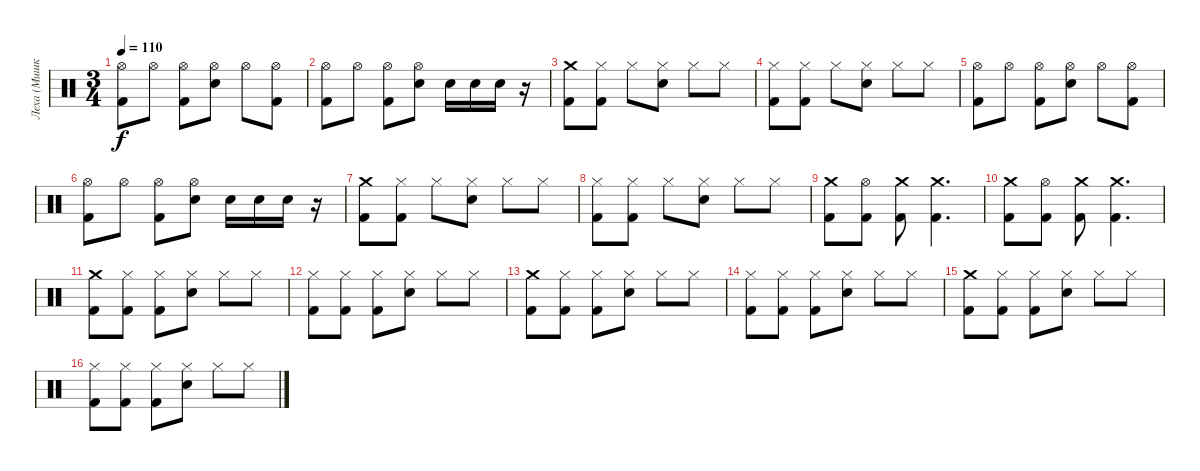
\track ("Леха (Мишка Гами)" "Леха (Мишк") {instrument percussion}
\staff {score}
\articulation defaults
\ts (3 4)
\tempo 110
\clef neutral
\ks c
("Hi-Hat (open)" "Kick (hit) 2").8{dy f} "Hi-Hat (open)".8 ("Hi-Hat (open)" "Kick (hit) 2").8 ("Hi-Hat (open)" "Snare (hit) 2").8 "Hi-Hat (open)".8 ("Hi-Hat (open)" "Kick (hit) 2").8 |
("Hi-Hat (open)" "Kick (hit) 2").8 "Hi-Hat (open)".8 ("Hi-Hat (open)" "Kick (hit) 2").8 ("Hi-Hat (open)" "Snare (hit) 2").8 "Snare (hit) 2".16 "Snare (hit) 2".16 "Snare (hit) 2".16 r.16 |
("Crash medium (hit)" "Kick (hit) 2").8 ("Hi-Hat (closed)" "Kick (hit) 2").8 "Hi-Hat (closed)".8 ("Hi-Hat (closed)" "Snare (hit) 2").8 "Hi-Hat (closed)".8 "Hi-Hat (closed)".8 |
("Hi-Hat (closed)" "Kick (hit) 2").8 ("Hi-Hat (closed)" "Kick (hit) 2").8 "Hi-Hat (closed)".8 ("Hi-Hat (closed)" "Snare (hit) 2").8 "Hi-Hat (closed)".8 "Hi-Hat (closed)".8 |
("Hi-Hat (open)" "Kick (hit) 2").8 "Hi-Hat (open)".8 ("Hi-Hat (open)" "Kick (hit) 2").8 ("Hi-Hat (open)" "Snare (hit) 2").8 "Hi-Hat (open)".8 ("Hi-Hat (open)" "Kick (hit) 2").8 |
("Hi-Hat (open)" "Kick (hit) 2").8 "Hi-Hat (open)".8 ("Hi-Hat (open)" "Kick (hit) 2").8 ("Hi-Hat (open)" "Snare (hit) 2").8 "Snare (hit) 2".16 "Snare (hit) 2".16 "Snare (hit) 2".16 r.16 |
("Crash medium (hit)" "Kick (hit) 2").8 ("Hi-Hat (closed)" "Kick (hit) 2").8 "Hi-Hat (closed)".8 ("Hi-Hat (closed)" "Snare (hit) 2").8 "Hi-Hat (closed)".8 "Hi-Hat (closed)".8 |
("Hi-Hat (closed)" "Kick (hit) 2").8 ("Hi-Hat (closed)" "Kick (hit) 2").8 "Hi-Hat (closed)".8 ("Hi-Hat (closed)" "Snare (hit) 2").8 "Hi-Hat (closed)".8 "Hi-Hat (closed)".8 |
("Crash medium (hit)" "Kick (hit) 2").8 ("Hi-Hat (open)" "Kick (hit) 2").8 ("Crash medium (hit)" "Kick (hit) 2").8 ("Crash medium (hit)" "Kick (hit) 2").4{d} |
("Crash medium (hit)" "Kick (hit) 2").8 ("Hi-Hat (open)" "Kick (hit) 2").8 ("Crash medium (hit)" "Kick (hit) 2").8 ("Crash medium (hit)" "Kick (hit) 2").4{d} |
("Crash medium (hit)" "Kick (hit) 2").8 ("Hi-Hat (closed)" "Kick (hit) 2").8 ("Hi-Hat (closed)" "Kick (hit) 2").8 ("Hi-Hat (closed)" "Snare (hit) 2").8 "Hi-Hat (closed)".8 "Hi-Hat (closed)".8 |
("Hi-Hat (closed)" "Kick (hit) 2").8 ("Hi-Hat (closed)" "Kick (hit) 2").8 ("Hi-Hat (closed)" "Kick (hit) 2").8 ("Hi-Hat (closed)" "Snare (hit) 2").8 "Hi-Hat (closed)".8 "Hi-Hat (closed)".8 |
("Crash medium (hit)" "Kick (hit) 2").8 ("Hi-Hat (closed)" "Kick (hit) 2").8 ("Hi-Hat (closed)" "Kick (hit) 2").8 ("Hi-Hat (closed)" "Snare (hit) 2").8 "Hi-Hat (closed)".8 "Hi-Hat (closed)".8 |
("Hi-Hat (closed)" "Kick (hit) 2").8 ("Hi-Hat (closed)" "Kick (hit) 2").8 ("Hi-Hat (closed)" "Kick (hit) 2").8 ("Hi-Hat (closed)" "Snare (hit) 2").8 "Hi-Hat (closed)".8 "Hi-Hat (closed)".8 |
("Crash medium (hit)" "Kick (hit) 2").8 ("Hi-Hat (closed)" "Kick (hit) 2").8 ("Hi-Hat (closed)" "Kick (hit) 2").8 ("Hi-Hat (closed)" "Snare (hit) 2").8 "Hi-Hat (closed)".8 "Hi-Hat (closed)".8 |
("Hi-Hat (closed)" "Kick (hit) 2").8 ("Hi-Hat (closed)" "Kick (hit) 2").8 ("Hi-Hat (closed)" "Kick (hit) 2").8 ("Hi-Hat (closed)" "Snare (hit) 2").8 "Hi-Hat (closed)".8 "Hi-Hat (closed)".8
